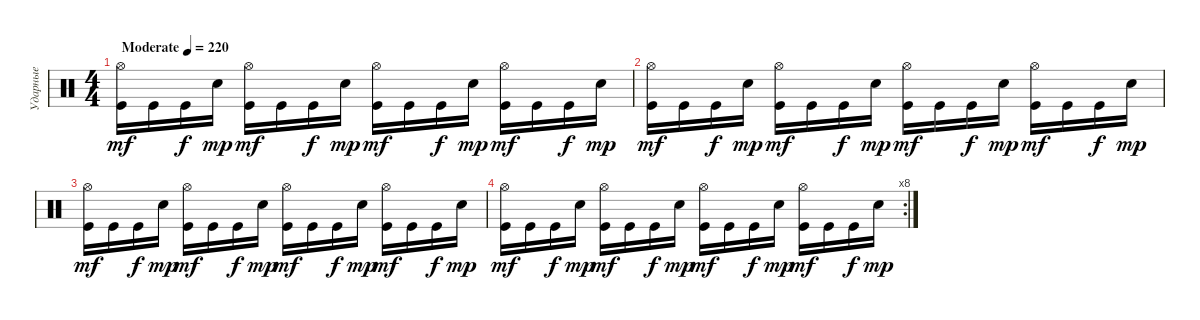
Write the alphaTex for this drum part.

\track ("Ударные" "Ударные") {instrument percussion}
\staff {score}
\articulation defaults
\ts (4 4)
\tempo (220 "Moderate")
\clef neutral
\ks c
("Hi-Hat (open)" "Kick (hit)").16{dy mf} "Kick (hit)".16 "Kick (hit)".16{dy f} "Electric Snare (hit)".16{dy mp} ("Hi-Hat (open)" "Kick (hit)").16{dy mf} "Kick (hit)".16 "Kick (hit)".16{dy f} "Electric Snare (hit)".16{dy mp} ("Hi-Hat (open)" "Kick (hit)").16{dy mf} "Kick (hit)".16 "Kick (hit)".16{dy f} "Electric Snare (hit)".16{dy mp} ("Hi-Hat (open)" "Kick (hit)").16{dy mf} "Kick (hit)".16 "Kick (hit)".16{dy f} "Electric Snare (hit)".16{dy mp} |
("Hi-Hat (open)" "Kick (hit)").16{dy mf} "Kick (hit)".16 "Kick (hit)".16{dy f} "Electric Snare (hit)".16{dy mp} ("Hi-Hat (open)" "Kick (hit)").16{dy mf} "Kick (hit)".16 "Kick (hit)".16{dy f} "Electric Snare (hit)".16{dy mp} ("Hi-Hat (open)" "Kick (hit)").16{dy mf} "Kick (hit)".16 "Kick (hit)".16{dy f} "Electric Snare (hit)".16{dy mp} ("Hi-Hat (open)" "Kick (hit)").16{dy mf} "Kick (hit)".16 "Kick (hit)".16{dy f} "Electric Snare (hit)".16{dy mp} |
("Hi-Hat (open)" "Kick (hit)").16{dy mf} "Kick (hit)".16 "Kick (hit)".16{dy f} "Electric Snare (hit)".16{dy mp} ("Hi-Hat (open)" "Kick (hit)").16{dy mf} "Kick (hit)".16 "Kick (hit)".16{dy f} "Electric Snare (hit)".16{dy mp} ("Hi-Hat (open)" "Kick (hit)").16{dy mf} "Kick (hit)".16 "Kick (hit)".16{dy f} "Electric Snare (hit)".16{dy mp} ("Hi-Hat (open)" "Kick (hit)").16{dy mf} "Kick (hit)".16 "Kick (hit)".16{dy f} "Electric Snare (hit)".16{dy mp} |
\rc 8
("Hi-Hat (open)" "Kick (hit)").16{dy mf} "Kick (hit)".16 "Kick (hit)".16{dy f} "Electric Snare (hit)".16{dy mp} ("Hi-Hat (open)" "Kick (hit)").16{dy mf} "Kick (hit)".16 "Kick (hit)".16{dy f} "Electric Snare (hit)".16{dy mp} ("Hi-Hat (open)" "Kick (hit)").16{dy mf} "Kick (hit)".16 "Kick (hit)".16{dy f} "Electric Snare (hit)".16{dy mp} ("Hi-Hat (open)" "Kick (hit)").16{dy mf} "Kick (hit)".16 "Kick (hit)".16{dy f} "Electric Snare (hit)".16{dy mp}
